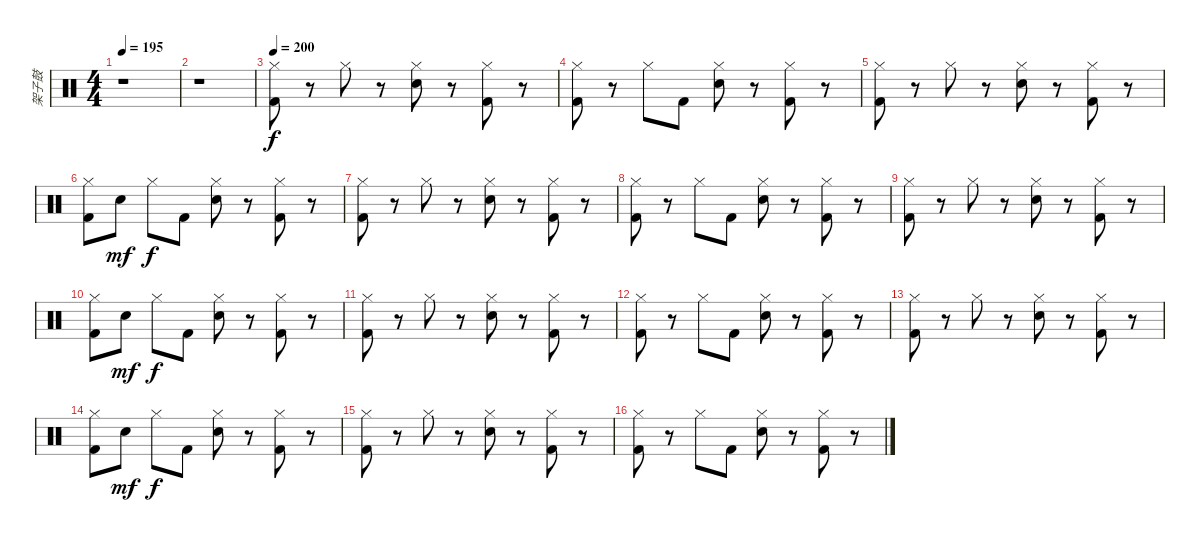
\track ("架子鼓" "架子鼓") {instrument percussion}
\staff {score}
\articulation defaults
\ts (4 4)
\tempo 195
\clef neutral
\ks c
r.1{dy f} |
r.1 |
\tempo 200
("Kick (hit) 2" "Hi-Hat (closed)").8 r.8 "Hi-Hat (closed)".8 r.8 ("Snare (hit) 2" "Hi-Hat (closed)").8 r.8 ("Hi-Hat (closed)" "Kick (hit) 2").8 r.8 |
("Kick (hit) 2" "Hi-Hat (closed)").8 r.8 "Hi-Hat (closed)".8 "Kick (hit) 2".8 ("Snare (hit) 2" "Hi-Hat (closed)").8 r.8 ("Kick (hit) 2" "Hi-Hat (closed)").8 r.8 |
("Kick (hit) 2" "Hi-Hat (closed)").8 r.8 "Hi-Hat (closed)".8 r.8 ("Snare (hit) 2" "Hi-Hat (closed)").8 r.8 ("Hi-Hat (closed)" "Kick (hit) 2").8 r.8 |
("Kick (hit) 2" "Hi-Hat (closed)").8 "Snare (hit) 2".8{dy mf} "Hi-Hat (closed)".8{dy f} "Kick (hit) 2".8 ("Snare (hit) 2" "Hi-Hat (closed)").8 r.8 ("Kick (hit) 2" "Hi-Hat (closed)").8 r.8 |
("Kick (hit) 2" "Hi-Hat (closed)").8 r.8 "Hi-Hat (closed)".8 r.8 ("Snare (hit) 2" "Hi-Hat (closed)").8 r.8 ("Hi-Hat (closed)" "Kick (hit) 2").8 r.8 |
("Kick (hit) 2" "Hi-Hat (closed)").8 r.8 "Hi-Hat (closed)".8 "Kick (hit) 2".8 ("Snare (hit) 2" "Hi-Hat (closed)").8 r.8 ("Kick (hit) 2" "Hi-Hat (closed)").8 r.8 |
("Kick (hit) 2" "Hi-Hat (closed)").8 r.8 "Hi-Hat (closed)".8 r.8 ("Snare (hit) 2" "Hi-Hat (closed)").8 r.8 ("Hi-Hat (closed)" "Kick (hit) 2").8 r.8 |
("Kick (hit) 2" "Hi-Hat (closed)").8 "Snare (hit) 2".8{dy mf} "Hi-Hat (closed)".8{dy f} "Kick (hit) 2".8 ("Snare (hit) 2" "Hi-Hat (closed)").8 r.8 ("Kick (hit) 2" "Hi-Hat (closed)").8 r.8 |
("Kick (hit) 2" "Hi-Hat (closed)").8 r.8 "Hi-Hat (closed)".8 r.8 ("Snare (hit) 2" "Hi-Hat (closed)").8 r.8 ("Hi-Hat (closed)" "Kick (hit) 2").8 r.8 |
("Kick (hit) 2" "Hi-Hat (closed)").8 r.8 "Hi-Hat (closed)".8 "Kick (hit) 2".8 ("Snare (hit) 2" "Hi-Hat (closed)").8 r.8 ("Kick (hit) 2" "Hi-Hat (closed)").8 r.8 |
("Kick (hit) 2" "Hi-Hat (closed)").8 r.8 "Hi-Hat (closed)".8 r.8 ("Snare (hit) 2" "Hi-Hat (closed)").8 r.8 ("Hi-Hat (closed)" "Kick (hit) 2").8 r.8 |
("Kick (hit) 2" "Hi-Hat (closed)").8 "Snare (hit) 2".8{dy mf} "Hi-Hat (closed)".8{dy f} "Kick (hit) 2".8 ("Snare (hit) 2" "Hi-Hat (closed)").8 r.8 ("Kick (hit) 2" "Hi-Hat (closed)").8 r.8 |
("Kick (hit) 2" "Hi-Hat (closed)").8 r.8 "Hi-Hat (closed)".8 r.8 ("Snare (hit) 2" "Hi-Hat (closed)").8 r.8 ("Hi-Hat (closed)" "Kick (hit) 2").8 r.8 |
("Kick (hit) 2" "Hi-Hat (closed)").8 r.8 "Hi-Hat (closed)".8 "Kick (hit) 2".8 ("Snare (hit) 2" "Hi-Hat (closed)").8 r.8 ("Kick (hit) 2" "Hi-Hat (closed)").8 r.8
